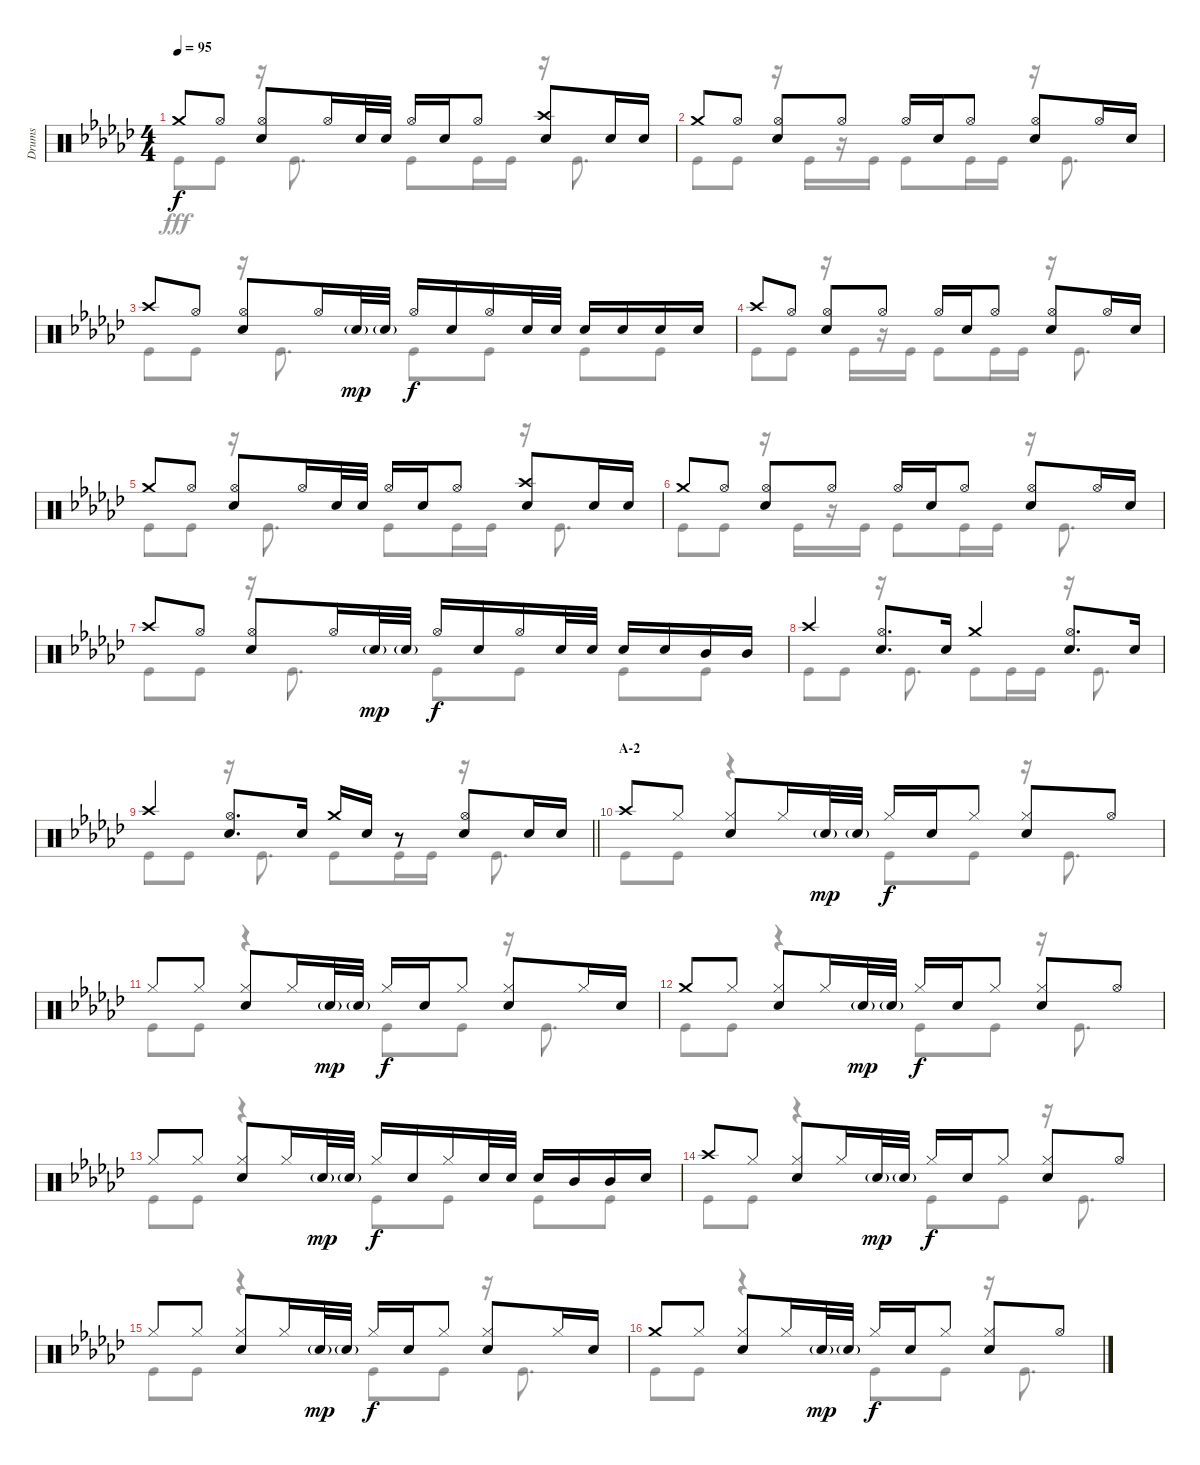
\track ("Drums" "Drums") {instrument percussion}
\staff {score}
\articulation defaults
\voice
\ts (4 4)
\tempo 95
\clef neutral
\ks gb "Crash medium (hit)".8{dy f} "Hi-Hat (open)".8
("Hi-Hat (open)" "Snare (hit) 2").8 "Hi-Hat (open)".16 "Snare (hit) 2".32 "Snare (hit) 2".32 "Hi-Hat (open)".16 "Snare (hit) 2".16 "Hi-Hat (open)".8 ("Crash high (hit)" "Snare (hit) 2").8 "Snare (hit) 2".16 "Snare (hit) 2".16 |
"Crash medium (hit)".8 "Hi-Hat (open)".8 ("Hi-Hat (open)" "Snare (hit) 2").8 "Hi-Hat (open)".8 "Hi-Hat (open)".16 "Snare (hit) 2".16 "Hi-Hat (open)".8 ("Hi-Hat (open)" "Snare (hit) 2").8 "Hi-Hat (open)".16 "Snare (hit) 2".16 |
"Crash high (hit)".8 "Hi-Hat (open)".8 ("Hi-Hat (open)" "Snare (hit) 2").8 "Hi-Hat (open)".16 "Snare (hit) 2"{g}.32{dy mp} "Snare (hit) 2"{g}.32 "Hi-Hat (open)".16{dy f} "Snare (hit) 2".16 "Hi-Hat (open)".16 "Snare (hit) 2".32 "Snare (hit) 2".32 "Snare (hit) 2".16 "Snare (hit) 2".16 "Snare (hit) 2".16 "Snare (hit) 2".16 |
"Crash high (hit)".8 "Hi-Hat (open)".8 ("Hi-Hat (open)" "Snare (hit) 2").8 "Hi-Hat (open)".8 "Hi-Hat (open)".16 "Snare (hit) 2".16 "Hi-Hat (open)".8 ("Hi-Hat (open)" "Snare (hit) 2").8 "Hi-Hat (open)".16 "Snare (hit) 2".16 |
"Crash medium (hit)".8 "Hi-Hat (open)".8 ("Hi-Hat (open)" "Snare (hit) 2").8 "Hi-Hat (open)".16 "Snare (hit) 2".32 "Snare (hit) 2".32 "Hi-Hat (open)".16 "Snare (hit) 2".16 "Hi-Hat (open)".8 ("Crash high (hit)" "Snare (hit) 2").8 "Snare (hit) 2".16 "Snare (hit) 2".16 |
"Crash medium (hit)".8 "Hi-Hat (open)".8 ("Hi-Hat (open)" "Snare (hit) 2").8 "Hi-Hat (open)".8 "Hi-Hat (open)".16 "Snare (hit) 2".16 "Hi-Hat (open)".8 ("Hi-Hat (open)" "Snare (hit) 2").8 "Hi-Hat (open)".16 "Snare (hit) 2".16 |
"Crash high (hit)".8 "Hi-Hat (open)".8 ("Hi-Hat (open)" "Snare (hit) 2").8 "Hi-Hat (open)".16 "Snare (hit) 2"{g}.32{dy mp} "Snare (hit) 2"{g}.32 "Hi-Hat (open)".16{dy f} "Snare (hit) 2".16 "Hi-Hat (open)".16 "Snare (hit) 2".32 "Snare (hit) 2".32 "Snare (hit) 2".16 "Snare (hit) 2".16 "Mid Tom (hit)".16 "Mid Tom (hit)".16 |
"Crash high (hit)".4 ("Hi-Hat (open)" "Snare (hit) 2").8{d} "Snare (hit) 2".16 "Crash medium (hit)".4 ("Hi-Hat (open)" "Snare (hit) 2").8{d} "Snare (hit) 2".16 |
\barLineRight lightlight "Crash high (hit)".4
("Hi-Hat (open)" "Snare (hit) 2").8{d} "Snare (hit) 2".16 "Crash medium (hit)".16 "Snare (hit) 2".16 r.8 ("Hi-Hat (open)" "Snare (hit) 2").8 "Snare (hit) 2".16 "Snare (hit) 2".16 |
\section ("" "A-2")
"Crash high (hit)".8 "Hi-Hat (closed)".8 ("Hi-Hat (closed)" "Snare (hit) 2").8 "Hi-Hat (closed)".16 "Snare (hit) 2"{g}.32{dy mp} "Snare (hit) 2"{g}.32 "Hi-Hat (closed)".16{dy f} "Snare (hit) 2".16 "Hi-Hat (closed)".8 ("Hi-Hat (closed)" "Snare (hit) 2").8 "Hi-Hat (open)".8 |
"Hi-Hat (closed)".8 "Hi-Hat (closed)".8 ("Hi-Hat (closed)" "Snare (hit) 2").8 "Hi-Hat (closed)".16 "Snare (hit) 2"{g}.32{dy mp} "Snare (hit) 2"{g}.32 "Hi-Hat (closed)".16{dy f} "Snare (hit) 2".16 "Hi-Hat (closed)".8 ("Hi-Hat (closed)" "Snare (hit) 2").8 "Hi-Hat (closed)".16 "Snare (hit) 2".16 |
"Crash medium (hit)".8 "Hi-Hat (closed)".8 ("Hi-Hat (closed)" "Snare (hit) 2").8 "Hi-Hat (closed)".16 "Snare (hit) 2"{g}.32{dy mp} "Snare (hit) 2"{g}.32 "Hi-Hat (closed)".16{dy f} "Snare (hit) 2".16 "Hi-Hat (closed)".8 ("Hi-Hat (closed)" "Snare (hit) 2").8 "Hi-Hat (open)".8 |
"Hi-Hat (closed)".8 "Hi-Hat (closed)".8 ("Hi-Hat (closed)" "Snare (hit) 2").8 "Hi-Hat (closed)".16 "Snare (hit) 2"{g}.32{dy mp} "Snare (hit) 2"{g}.32 "Hi-Hat (closed)".16{dy f} "Snare (hit) 2".16 "Hi-Hat (closed)".16 "Snare (hit) 2".32 "Snare (hit) 2".32 "Snare (hit) 2".16 "Mid Tom (hit)".16 "Mid Tom (hit)".16 "Snare (hit) 2".16 |
"Crash high (hit)".8 "Hi-Hat (closed)".8 ("Hi-Hat (closed)" "Snare (hit) 2").8 "Hi-Hat (closed)".16 "Snare (hit) 2"{g}.32{dy mp} "Snare (hit) 2"{g}.32 "Hi-Hat (closed)".16{dy f} "Snare (hit) 2".16 "Hi-Hat (closed)".8 ("Hi-Hat (closed)" "Snare (hit) 2").8 "Hi-Hat (open)".8 |
"Hi-Hat (closed)".8 "Hi-Hat (closed)".8 ("Hi-Hat (closed)" "Snare (hit) 2").8 "Hi-Hat (closed)".16 "Snare (hit) 2"{g}.32{dy mp} "Snare (hit) 2"{g}.32 "Hi-Hat (closed)".16{dy f} "Snare (hit) 2".16 "Hi-Hat (closed)".8 ("Hi-Hat (closed)" "Snare (hit) 2").8 "Hi-Hat (closed)".16 "Snare (hit) 2".16 |
"Crash medium (hit)".8 "Hi-Hat (closed)".8 ("Hi-Hat (closed)" "Snare (hit) 2").8 "Hi-Hat (closed)".16 "Snare (hit) 2"{g}.32{dy mp} "Snare (hit) 2"{g}.32 "Hi-Hat (closed)".16{dy f} "Snare (hit) 2".16 "Hi-Hat (closed)".8 ("Hi-Hat (closed)" "Snare (hit) 2").8 "Hi-Hat (open)".8
\voice
\clef neutral
\ottava regular
\simile none
\ks gb "Kick (hit)".8{dy fff} "Kick (hit)".8
r.16 "Kick (hit)".8{d} "Kick (hit)".8 "Kick (hit)".16 "Kick (hit)".16 r.16 "Kick (hit)".8{d} |
"Kick (hit)".8 "Kick (hit)".8 r.16 "Kick (hit)".16 r.16 "Kick (hit)".16 "Kick (hit)".8 "Kick (hit)".16 "Kick (hit)".16 r.16 "Kick (hit)".8{d} |
"Kick (hit)".8 "Kick (hit)".8 r.16 "Kick (hit)".8{d} "Kick (hit)".8 "Kick (hit)".8 "Kick (hit)".8 "Kick (hit)".8 |
"Kick (hit)".8 "Kick (hit)".8 r.16 "Kick (hit)".16 r.16 "Kick (hit)".16 "Kick (hit)".8 "Kick (hit)".16 "Kick (hit)".16 r.16 "Kick (hit)".8{d} |
"Kick (hit)".8 "Kick (hit)".8 r.16 "Kick (hit)".8{d} "Kick (hit)".8 "Kick (hit)".16 "Kick (hit)".16 r.16 "Kick (hit)".8{d} |
"Kick (hit)".8 "Kick (hit)".8 r.16 "Kick (hit)".16 r.16 "Kick (hit)".16 "Kick (hit)".8 "Kick (hit)".16 "Kick (hit)".16 r.16 "Kick (hit)".8{d} |
"Kick (hit)".8 "Kick (hit)".8 r.16 "Kick (hit)".8{d} "Kick (hit)".8 "Kick (hit)".8 "Kick (hit)".8 "Kick (hit)".8 |
"Kick (hit)".8 "Kick (hit)".8 r.16 "Kick (hit)".8{d} "Kick (hit)".8 "Kick (hit)".16 "Kick (hit)".16 r.16 "Kick (hit)".8{d} |
\barLineRight lightlight "Kick (hit)".8 "Kick (hit)".8
r.16 "Kick (hit)".8{d} "Kick (hit)".8 "Kick (hit)".16 "Kick (hit)".16 r.16 "Kick (hit)".8{d} |
"Kick (hit)".8 "Kick (hit)".8 r.4 "Kick (hit)".8 "Kick (hit)".8 r.16 "Kick (hit)".8{d} |
"Kick (hit)".8 "Kick (hit)".8 r.4 "Kick (hit)".8 "Kick (hit)".8 r.16 "Kick (hit)".8{d} |
"Kick (hit)".8 "Kick (hit)".8 r.4 "Kick (hit)".8 "Kick (hit)".8 r.16 "Kick (hit)".8{d} |
"Kick (hit)".8 "Kick (hit)".8 r.4 "Kick (hit)".8 "Kick (hit)".8 "Kick (hit)".8 "Kick (hit)".8 |
"Kick (hit)".8 "Kick (hit)".8 r.4 "Kick (hit)".8 "Kick (hit)".8 r.16 "Kick (hit)".8{d} |
"Kick (hit)".8 "Kick (hit)".8 r.4 "Kick (hit)".8 "Kick (hit)".8 r.16 "Kick (hit)".8{d} |
"Kick (hit)".8 "Kick (hit)".8 r.4 "Kick (hit)".8 "Kick (hit)".8 r.16 "Kick (hit)".8{d}
